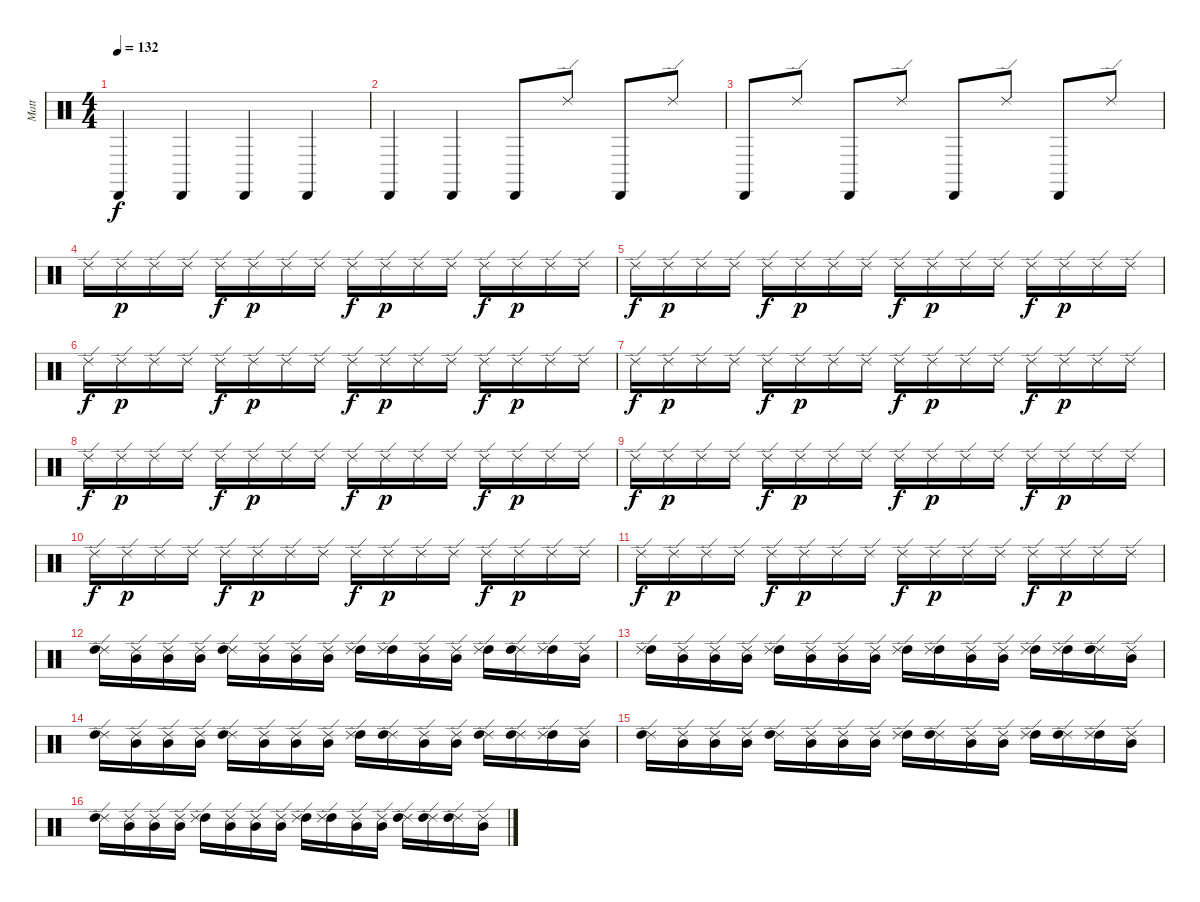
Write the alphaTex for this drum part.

\track ("Matt" "Matt") {instrument percussion}
\staff {score}
\articulation defaults
\ts (4 4)
\tempo 132
\clef neutral
\ks c "Cabasa (hit)".4{dy f} "Cabasa (hit)".4 "Cabasa (hit)".4 "Cabasa (hit)".4
|
"Cabasa (hit)".4 "Cabasa (hit)".4 "Cabasa (hit)".8 "Ride (edge) 2".8 "Cabasa (hit)".8 "Ride (edge) 2".8 |
"Cabasa (hit)".8 "Ride (edge) 2".8 "Cabasa (hit)".8 "Ride (edge) 2".8 "Cabasa (hit)".8 "Ride (edge) 2".8 "Cabasa (hit)".8 "Ride (edge) 2".8 |
"Ride (edge) 2".16 "Ride (edge) 2".16{dy p} "Ride (edge) 2".16 "Ride (edge) 2".16 "Ride (edge) 2".16{dy f} "Ride (edge) 2".16{dy p} "Ride (edge) 2".16 "Ride (edge) 2".16 "Ride (edge) 2".16{dy f} "Ride (edge) 2".16{dy p} "Ride (edge) 2".16 "Ride (edge) 2".16 "Ride (edge) 2".16{dy f} "Ride (edge) 2".16{dy p} "Ride (edge) 2".16 "Ride (edge) 2".16 |
"Ride (edge) 2".16{dy f} "Ride (edge) 2".16{dy p} "Ride (edge) 2".16 "Ride (edge) 2".16 "Ride (edge) 2".16{dy f} "Ride (edge) 2".16{dy p} "Ride (edge) 2".16 "Ride (edge) 2".16 "Ride (edge) 2".16{dy f} "Ride (edge) 2".16{dy p} "Ride (edge) 2".16 "Ride (edge) 2".16 "Ride (edge) 2".16{dy f} "Ride (edge) 2".16{dy p} "Ride (edge) 2".16 "Ride (edge) 2".16 |
"Ride (edge) 2".16{dy f} "Ride (edge) 2".16{dy p} "Ride (edge) 2".16 "Ride (edge) 2".16 "Ride (edge) 2".16{dy f} "Ride (edge) 2".16{dy p} "Ride (edge) 2".16 "Ride (edge) 2".16 "Ride (edge) 2".16{dy f} "Ride (edge) 2".16{dy p} "Ride (edge) 2".16 "Ride (edge) 2".16 "Ride (edge) 2".16{dy f} "Ride (edge) 2".16{dy p} "Ride (edge) 2".16 "Ride (edge) 2".16 |
"Ride (edge) 2".16{dy f} "Ride (edge) 2".16{dy p} "Ride (edge) 2".16 "Ride (edge) 2".16 "Ride (edge) 2".16{dy f} "Ride (edge) 2".16{dy p} "Ride (edge) 2".16 "Ride (edge) 2".16 "Ride (edge) 2".16{dy f} "Ride (edge) 2".16{dy p} "Ride (edge) 2".16 "Ride (edge) 2".16 "Ride (edge) 2".16{dy f} "Ride (edge) 2".16{dy p} "Ride (edge) 2".16 "Ride (edge) 2".16 |
"Ride (edge) 2".16{dy f} "Ride (edge) 2".16{dy p} "Ride (edge) 2".16 "Ride (edge) 2".16 "Ride (edge) 2".16{dy f} "Ride (edge) 2".16{dy p} "Ride (edge) 2".16 "Ride (edge) 2".16 "Ride (edge) 2".16{dy f} "Ride (edge) 2".16{dy p} "Ride (edge) 2".16 "Ride (edge) 2".16 "Ride (edge) 2".16{dy f} "Ride (edge) 2".16{dy p} "Ride (edge) 2".16 "Ride (edge) 2".16 |
"Ride (edge) 2".16{dy f} "Ride (edge) 2".16{dy p} "Ride (edge) 2".16 "Ride (edge) 2".16 "Ride (edge) 2".16{dy f} "Ride (edge) 2".16{dy p} "Ride (edge) 2".16 "Ride (edge) 2".16 "Ride (edge) 2".16{dy f} "Ride (edge) 2".16{dy p} "Ride (edge) 2".16 "Ride (edge) 2".16 "Ride (edge) 2".16{dy f} "Ride (edge) 2".16{dy p} "Ride (edge) 2".16 "Ride (edge) 2".16 |
"Ride (edge) 2".16{dy f} "Ride (edge) 2".16{dy p} "Ride (edge) 2".16 "Ride (edge) 2".16 "Ride (edge) 2".16{dy f} "Ride (edge) 2".16{dy p} "Ride (edge) 2".16 "Ride (edge) 2".16 "Ride (edge) 2".16{dy f} "Ride (edge) 2".16{dy p} "Ride (edge) 2".16 "Ride (edge) 2".16 "Ride (edge) 2".16{dy f} "Ride (edge) 2".16{dy p} "Ride (edge) 2".16 "Ride (edge) 2".16 |
"Ride (edge) 2".16{dy f} "Ride (edge) 2".16{dy p} "Ride (edge) 2".16 "Ride (edge) 2".16 "Ride (edge) 2".16{dy f} "Ride (edge) 2".16{dy p} "Ride (edge) 2".16 "Ride (edge) 2".16 "Ride (edge) 2".16{dy f} "Ride (edge) 2".16{dy p} "Ride (edge) 2".16 "Ride (edge) 2".16 "Ride (edge) 2".16{dy f} "Ride (edge) 2".16{dy p} "Ride (edge) 2".16 "Ride (edge) 2".16 |
("Ride (edge) 2" "High Tom (hit)").16 ("Ride (edge) 2" "Mid Tom (hit)").16 ("Mid Tom (hit)" "Ride (edge) 2").16 ("Ride (edge) 2" "Mid Tom (hit)").16 ("Ride (edge) 2" "High Tom (hit)").16 ("Ride (edge) 2" "Mid Tom (hit)").16 ("Mid Tom (hit)" "Ride (edge) 2").16 ("Mid Tom (hit)" "Ride (edge) 2").16 ("High Tom (hit)" "Ride (edge) 2").16 ("High Tom (hit)" "Ride (edge) 2").16 ("Mid Tom (hit)" "Ride (edge) 2").16 ("Ride (edge) 2" "Mid Tom (hit)").16 ("High Tom (hit)" "Ride (edge) 2").16 ("Ride (edge) 2" "High Tom (hit)").16 ("High Tom (hit)" "Ride (edge) 2").16 ("Mid Tom (hit)" "Ride (edge) 2").16 |
("High Tom (hit)" "Ride (edge) 2").16 ("Ride (edge) 2" "Mid Tom (hit)").16 ("Mid Tom (hit)" "Ride (edge) 2").16 ("Mid Tom (hit)" "Ride (edge) 2").16 ("High Tom (hit)" "Ride (edge) 2").16 ("Mid Tom (hit)" "Ride (edge) 2").16 ("Mid Tom (hit)" "Ride (edge) 2").16 ("Ride (edge) 2" "Mid Tom (hit)").16 ("High Tom (hit)" "Ride (edge) 2").16 ("High Tom (hit)" "Ride (edge) 2").16 ("Ride (edge) 2" "Mid Tom (hit)").16 ("Mid Tom (hit)" "Ride (edge) 2").16 ("High Tom (hit)" "Ride (edge) 2").16 ("High Tom (hit)" "Ride (edge) 2").16 ("Ride (edge) 2" "High Tom (hit)").16 ("Mid Tom (hit)" "Ride (edge) 2").16 |
("Ride (edge) 2" "High Tom (hit)").16 ("Ride (edge) 2" "Mid Tom (hit)").16 ("Ride (edge) 2" "Mid Tom (hit)").16 ("Mid Tom (hit)" "Ride (edge) 2").16 ("Ride (edge) 2" "High Tom (hit)").16 ("Mid Tom (hit)" "Ride (edge) 2").16 ("Mid Tom (hit)" "Ride (edge) 2").16 ("Ride (edge) 2" "Mid Tom (hit)").16 ("High Tom (hit)" "Ride (edge) 2").16 ("Ride (edge) 2" "High Tom (hit)").16 ("Mid Tom (hit)" "Ride (edge) 2").16 ("Mid Tom (hit)" "Ride (edge) 2").16 ("Ride (edge) 2" "High Tom (hit)").16 ("Ride (edge) 2" "High Tom (hit)").16 ("High Tom (hit)" "Ride (edge) 2").16 ("Mid Tom (hit)" "Ride (edge) 2").16 |
("Ride (edge) 2" "High Tom (hit)").16 ("Mid Tom (hit)" "Ride (edge) 2").16 ("Ride (edge) 2" "Mid Tom (hit)").16 ("Ride (edge) 2" "Mid Tom (hit)").16 ("Ride (edge) 2" "High Tom (hit)").16 ("Mid Tom (hit)" "Ride (edge) 2").16 ("Ride (edge) 2" "Mid Tom (hit)").16 ("Ride (edge) 2" "Mid Tom (hit)").16 ("High Tom (hit)" "Ride (edge) 2").16 ("Ride (edge) 2" "High Tom (hit)").16 ("Ride (edge) 2" "Mid Tom (hit)").16 ("Ride (edge) 2" "Mid Tom (hit)").16 ("High Tom (hit)" "Ride (edge) 2").16 ("Ride (edge) 2" "High Tom (hit)").16 ("High Tom (hit)" "Ride (edge) 2").16 ("Mid Tom (hit)" "Ride (edge) 2").16 |
("Ride (edge) 2" "High Tom (hit)").16 ("Mid Tom (hit)" "Ride (edge) 2").16 ("Ride (edge) 2" "Mid Tom (hit)").16 ("Ride (edge) 2" "Mid Tom (hit)").16 ("High Tom (hit)" "Ride (edge) 2").16 ("Mid Tom (hit)" "Ride (edge) 2").16 ("Ride (edge) 2" "Mid Tom (hit)").16 ("Mid Tom (hit)" "Ride (edge) 2").16 ("High Tom (hit)" "Ride (edge) 2").16 ("High Tom (hit)" "Ride (edge) 2").16 ("Mid Tom (hit)" "Ride (edge) 2").16 ("Mid Tom (hit)" "Ride (edge) 2").16 ("Ride (edge) 2" "High Tom (hit)").16 ("Ride (edge) 2" "High Tom (hit)").16 ("Ride (edge) 2" "High Tom (hit)").16 ("Mid Tom (hit)" "Ride (edge) 2").16
